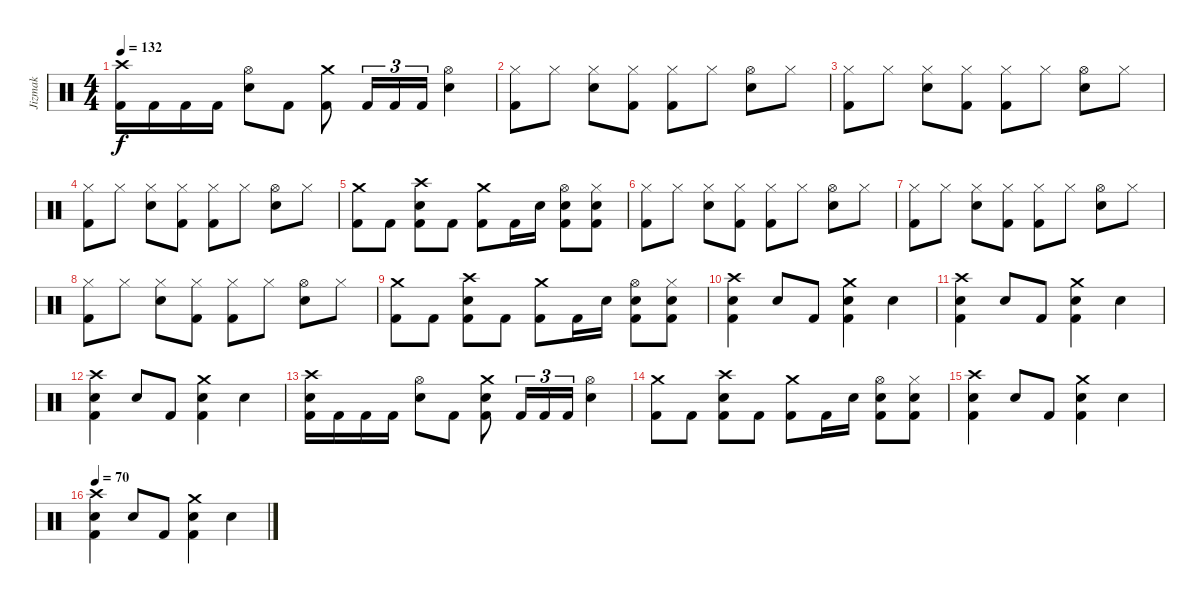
\track ("Jizmak" "Jizmak") {instrument percussion}
\staff {score}
\articulation defaults
\ts (4 4)
\tempo 132
\clef neutral
\ks c
("Crash high (hit)" "Kick (hit) 2").16{dy f} "Kick (hit) 2".16 "Kick (hit) 2".16 "Kick (hit) 2".16 ("Hi-Hat (open)" "Snare (hit) 2").8 "Kick (hit) 2".8 ("Crash medium (hit)" "Kick (hit) 2").8 "Kick (hit) 2".16{tu (3 2)} "Kick (hit) 2".16{tu (3 2)} "Kick (hit) 2".16{tu (3 2)} ("Hi-Hat (open)" "Snare (hit) 2").4 |
("Hi-Hat (closed)" "Kick (hit) 2").8 "Hi-Hat (closed)".8 ("Hi-Hat (closed)" "Snare (hit) 2").8 ("Hi-Hat (closed)" "Kick (hit) 2").8 ("Hi-Hat (closed)" "Kick (hit) 2").8 "Hi-Hat (closed)".8 ("Hi-Hat (open)" "Snare (hit) 2").8 "Hi-Hat (closed)".8 |
("Hi-Hat (closed)" "Kick (hit) 2").8 "Hi-Hat (closed)".8 ("Hi-Hat (closed)" "Snare (hit) 2").8 ("Hi-Hat (closed)" "Kick (hit) 2").8 ("Hi-Hat (closed)" "Kick (hit) 2").8 "Hi-Hat (closed)".8 ("Hi-Hat (open)" "Snare (hit) 2").8 "Hi-Hat (closed)".8 |
("Hi-Hat (closed)" "Kick (hit) 2").8 "Hi-Hat (closed)".8 ("Hi-Hat (closed)" "Snare (hit) 2").8 ("Hi-Hat (closed)" "Kick (hit) 2").8 ("Hi-Hat (closed)" "Kick (hit) 2").8 "Hi-Hat (closed)".8 ("Hi-Hat (open)" "Snare (hit) 2").8 "Hi-Hat (closed)".8 |
("Crash medium (hit)" "Kick (hit) 2").8 "Kick (hit) 2".8 ("Crash high (hit)" "Kick (hit) 2" "Snare (hit) 2").8 "Kick (hit) 2".8 ("Crash medium (hit)" "Kick (hit) 2").8 "Kick (hit) 2".16 "Snare (hit) 2".16 ("Hi-Hat (open)" "Kick (hit) 2" "Snare (hit) 2").8 ("Hi-Hat (closed)" "Kick (hit) 2" "Snare (hit) 2").8 |
("Hi-Hat (closed)" "Kick (hit) 2").8 "Hi-Hat (closed)".8 ("Hi-Hat (closed)" "Snare (hit) 2").8 ("Hi-Hat (closed)" "Kick (hit) 2").8 ("Hi-Hat (closed)" "Kick (hit) 2").8 "Hi-Hat (closed)".8 ("Hi-Hat (open)" "Snare (hit) 2").8 "Hi-Hat (closed)".8 |
("Hi-Hat (closed)" "Kick (hit) 2").8 "Hi-Hat (closed)".8 ("Hi-Hat (closed)" "Snare (hit) 2").8 ("Hi-Hat (closed)" "Kick (hit) 2").8 ("Hi-Hat (closed)" "Kick (hit) 2").8 "Hi-Hat (closed)".8 ("Hi-Hat (open)" "Snare (hit) 2").8 "Hi-Hat (closed)".8 |
("Hi-Hat (closed)" "Kick (hit) 2").8 "Hi-Hat (closed)".8 ("Hi-Hat (closed)" "Snare (hit) 2").8 ("Hi-Hat (closed)" "Kick (hit) 2").8 ("Hi-Hat (closed)" "Kick (hit) 2").8 "Hi-Hat (closed)".8 ("Hi-Hat (open)" "Snare (hit) 2").8 "Hi-Hat (closed)".8 |
("Crash medium (hit)" "Kick (hit) 2").8 "Kick (hit) 2".8 ("Crash high (hit)" "Kick (hit) 2" "Snare (hit) 2").8 "Kick (hit) 2".8 ("Crash medium (hit)" "Kick (hit) 2").8 "Kick (hit) 2".16 "Snare (hit) 2".16 ("Hi-Hat (open)" "Kick (hit) 2" "Snare (hit) 2").8 ("Hi-Hat (closed)" "Kick (hit) 2" "Snare (hit) 2").8 |
("Crash high (hit)" "Kick (hit) 2" "Snare (hit) 2").4 "Snare (hit) 2".8 "Kick (hit) 2".8 ("Crash medium (hit)" "Kick (hit) 2" "Snare (hit) 2").4 "Snare (hit) 2".4 |
("Crash high (hit)" "Kick (hit) 2" "Snare (hit) 2").4 "Snare (hit) 2".8 "Kick (hit) 2".8 ("Crash medium (hit)" "Kick (hit) 2" "Snare (hit) 2").4 "Snare (hit) 2".4 |
("Crash high (hit)" "Kick (hit) 2" "Snare (hit) 2").4 "Snare (hit) 2".8 "Kick (hit) 2".8 ("Crash medium (hit)" "Kick (hit) 2" "Snare (hit) 2").4 "Snare (hit) 2".4 |
("Crash high (hit)" "Kick (hit) 2" "Snare (hit) 2").16 "Kick (hit) 2".16 "Kick (hit) 2".16 "Kick (hit) 2".16 ("Hi-Hat (open)" "Snare (hit) 2").8 "Kick (hit) 2".8 ("Crash medium (hit)" "Kick (hit) 2" "Snare (hit) 2").8 "Kick (hit) 2".16{tu (3 2)} "Kick (hit) 2".16{tu (3 2)} "Kick (hit) 2".16{tu (3 2)} ("Hi-Hat (open)" "Snare (hit) 2").4 |
("Crash medium (hit)" "Kick (hit) 2").8 "Kick (hit) 2".8 ("Crash high (hit)" "Kick (hit) 2" "Snare (hit) 2").8 "Kick (hit) 2".8 ("Crash medium (hit)" "Kick (hit) 2").8 "Kick (hit) 2".16 "Snare (hit) 2".16 ("Hi-Hat (open)" "Kick (hit) 2" "Snare (hit) 2").8 ("Hi-Hat (closed)" "Kick (hit) 2" "Snare (hit) 2").8 |
("Crash high (hit)" "Kick (hit) 2" "Snare (hit) 2").4 "Snare (hit) 2".8 "Kick (hit) 2".8 ("Crash medium (hit)" "Kick (hit) 2" "Snare (hit) 2").4 "Snare (hit) 2".4 |
\tempo 70
("Crash high (hit)" "Kick (hit) 2" "Snare (hit) 2").4 "Snare (hit) 2".8 "Kick (hit) 2".8 ("Crash medium (hit)" "Kick (hit) 2" "Snare (hit) 2").4 "Snare (hit) 2".4
